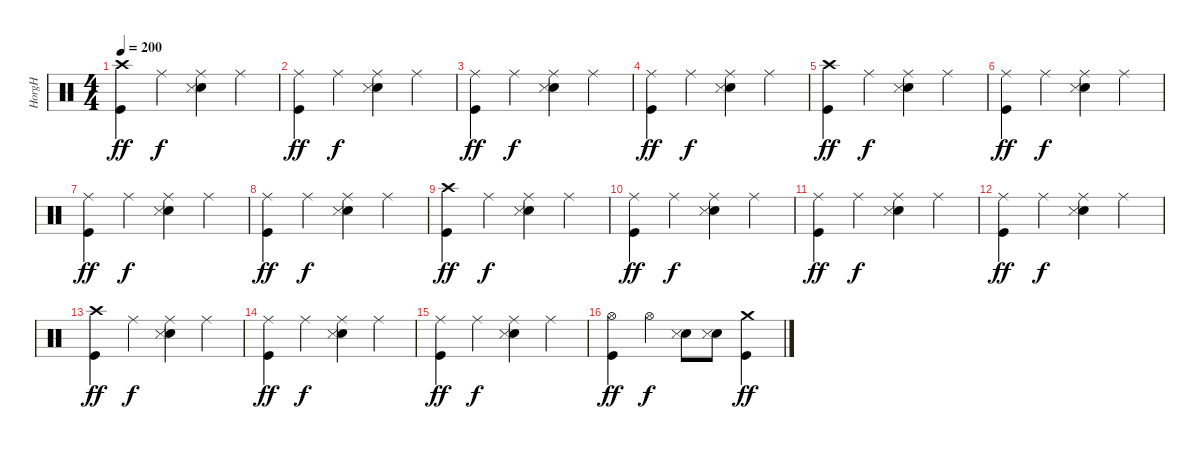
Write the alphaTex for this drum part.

\track ("HorgH" "HorgH") {instrument percussion}
\staff {score}
\articulation defaults
\ts (4 4)
\section ("" "")
\tempo 200
\clef neutral
\ks c
("Crash high (hit)" "Kick (hit)").4{dy ff} "Ride (middle)".4{dy f} ("Ride (middle)" "Electric Snare (hit)" "Snare (side stick) 3").4 "Ride (middle)".4 |
("Ride (middle)" "Kick (hit)").4{dy ff} "Ride (middle)".4{dy f} ("Ride (middle)" "Electric Snare (hit)" "Snare (side stick) 3").4 "Ride (middle)".4 |
("Ride (middle)" "Kick (hit)").4{dy ff} "Ride (middle)".4{dy f} ("Ride (middle)" "Electric Snare (hit)" "Snare (side stick) 3").4 "Ride (middle)".4 |
("Ride (middle)" "Kick (hit)").4{dy ff} "Ride (middle)".4{dy f} ("Ride (middle)" "Electric Snare (hit)" "Snare (side stick) 3").4 "Ride (middle)".4 |
("Crash high (hit)" "Kick (hit)").4{dy ff} "Ride (middle)".4{dy f} ("Ride (middle)" "Electric Snare (hit)" "Snare (side stick) 3").4 "Ride (middle)".4 |
("Ride (middle)" "Kick (hit)").4{dy ff} "Ride (middle)".4{dy f} ("Ride (middle)" "Electric Snare (hit)" "Snare (side stick) 3").4 "Ride (middle)".4 |
("Ride (middle)" "Kick (hit)").4{dy ff} "Ride (middle)".4{dy f} ("Ride (middle)" "Electric Snare (hit)" "Snare (side stick) 3").4 "Ride (middle)".4 |
("Ride (middle)" "Kick (hit)").4{dy ff} "Ride (middle)".4{dy f} ("Ride (middle)" "Electric Snare (hit)" "Snare (side stick) 3").4 "Ride (middle)".4 |
("Crash high (hit)" "Kick (hit)").4{dy ff} "Ride (middle)".4{dy f} ("Ride (middle)" "Electric Snare (hit)" "Snare (side stick) 3").4 "Ride (middle)".4 |
("Ride (middle)" "Kick (hit)").4{dy ff} "Ride (middle)".4{dy f} ("Ride (middle)" "Electric Snare (hit)" "Snare (side stick) 3").4 "Ride (middle)".4 |
("Ride (middle)" "Kick (hit)").4{dy ff} "Ride (middle)".4{dy f} ("Ride (middle)" "Electric Snare (hit)" "Snare (side stick) 3").4 "Ride (middle)".4 |
("Ride (middle)" "Kick (hit)").4{dy ff} "Ride (middle)".4{dy f} ("Ride (middle)" "Electric Snare (hit)" "Snare (side stick) 3").4 "Ride (middle)".4 |
("Crash high (hit)" "Kick (hit)").4{dy ff} "Ride (middle)".4{dy f} ("Ride (middle)" "Electric Snare (hit)" "Snare (side stick) 3").4 "Ride (middle)".4 |
("Ride (middle)" "Kick (hit)").4{dy ff} "Ride (middle)".4{dy f} ("Ride (middle)" "Electric Snare (hit)" "Snare (side stick) 3").4 "Ride (middle)".4 |
("Ride (middle)" "Kick (hit)").4{dy ff} "Ride (middle)".4{dy f} ("Ride (middle)" "Electric Snare (hit)" "Snare (side stick) 3").4 "Ride (middle)".4 |
("Hi-Hat (open)" "Kick (hit)").4{dy ff} "Hi-Hat (open)".4{dy f} ("Electric Snare (hit)" "Snare (side stick) 3").8 ("Electric Snare (hit)" "Snare (side stick) 3").8 ("Crash medium (hit)" "Kick (hit)").4{dy ff}
